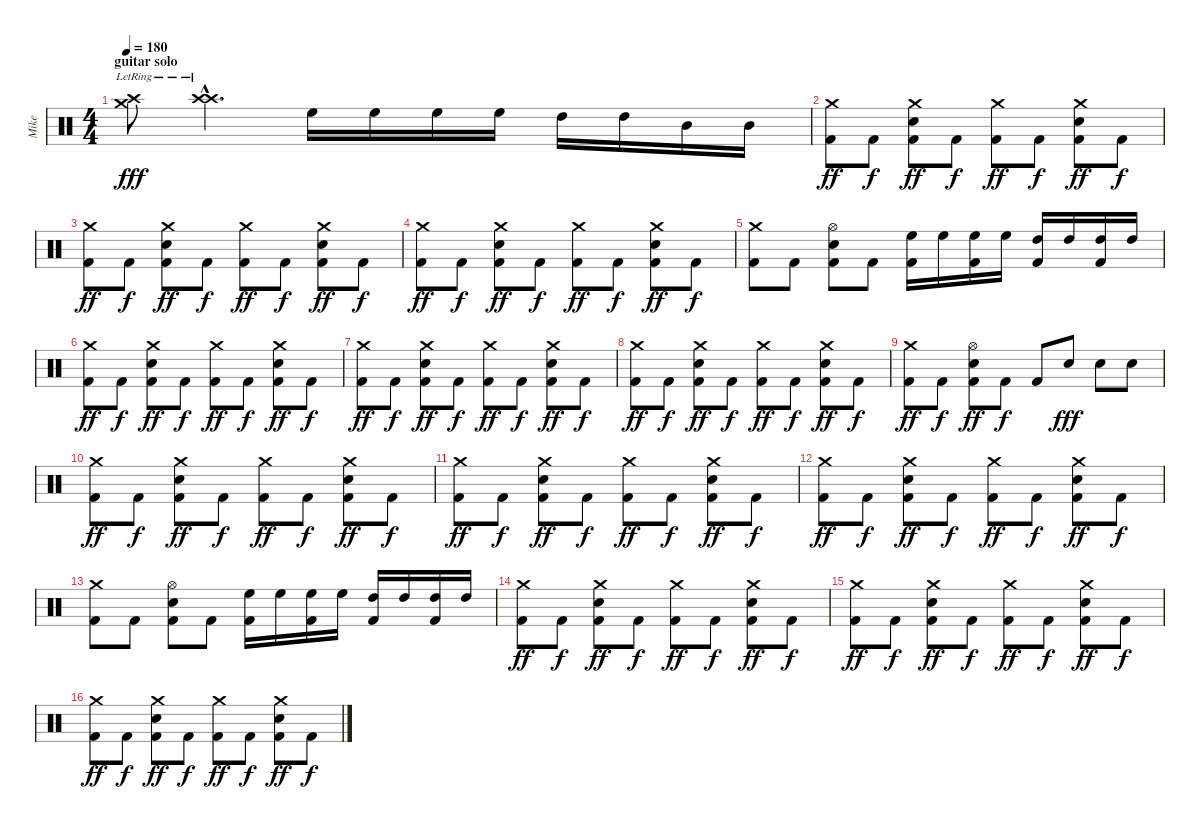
\track ("Mike" "Mike") {instrument percussion}
\staff {score}
\articulation defaults
\ts (4 4)
\section ("" "guitar solo")
\tempo 180
\clef neutral
\ks c
("Crash high (hit)"{lr} "Crash medium (hit)"{lr}).8{dy fff} ("Crash high (hit)"{hac lr} "Crash high (hit)"{hac lr}).4{d} "High Floor Tom (hit)".16 "High Floor Tom (hit)".16 "High Floor Tom (hit)".16 "High Floor Tom (hit)".16 "High Tom (hit)".16 "High Tom (hit)".16 "Mid Tom (hit)".16 "Mid Tom (hit)".16 |
("Crash medium (hit)" "Kick (hit) 2").8{dy ff} "Kick (hit) 2".8{dy f} ("Crash medium (hit)" "Snare (hit) 2" "Kick (hit) 2").8{dy ff} "Kick (hit) 2".8{dy f} ("Crash medium (hit)" "Kick (hit) 2").8{dy ff} "Kick (hit) 2".8{dy f} ("Crash medium (hit)" "Snare (hit) 2" "Kick (hit) 2").8{dy ff} "Kick (hit) 2".8{dy f} |
("Crash medium (hit)" "Kick (hit) 2").8{dy ff} "Kick (hit) 2".8{dy f} ("Crash medium (hit)" "Snare (hit) 2" "Kick (hit) 2").8{dy ff} "Kick (hit) 2".8{dy f} ("Crash medium (hit)" "Kick (hit) 2").8{dy ff} "Kick (hit) 2".8{dy f} ("Crash medium (hit)" "Snare (hit) 2" "Kick (hit) 2").8{dy ff} "Kick (hit) 2".8{dy f} |
("Crash medium (hit)" "Kick (hit) 2").8{dy ff} "Kick (hit) 2".8{dy f} ("Crash medium (hit)" "Snare (hit) 2" "Kick (hit) 2").8{dy ff} "Kick (hit) 2".8{dy f} ("Crash medium (hit)" "Kick (hit) 2").8{dy ff} "Kick (hit) 2".8{dy f} ("Crash medium (hit)" "Snare (hit) 2" "Kick (hit) 2").8{dy ff} "Kick (hit) 2".8{dy f} |
("Crash medium (hit)" "Kick (hit) 2").8 "Kick (hit) 2".8 ("Hi-Hat (open)" "Snare (hit) 2" "Kick (hit) 2").8 "Kick (hit) 2".8 ("High Floor Tom (hit)" "Kick (hit) 2").16 "High Floor Tom (hit)".16 ("High Floor Tom (hit)" "Kick (hit) 2").16 "High Floor Tom (hit)".16 ("High Tom (hit)" "Kick (hit) 2").16 "High Tom (hit)".16 ("High Tom (hit)" "Kick (hit) 2").16 "High Tom (hit)".16 |
("Crash medium (hit)" "Kick (hit) 2").8{dy ff} "Kick (hit) 2".8{dy f} ("Crash medium (hit)" "Snare (hit) 2" "Kick (hit) 2").8{dy ff} "Kick (hit) 2".8{dy f} ("Crash medium (hit)" "Kick (hit) 2").8{dy ff} "Kick (hit) 2".8{dy f} ("Crash medium (hit)" "Snare (hit) 2" "Kick (hit) 2").8{dy ff} "Kick (hit) 2".8{dy f} |
("Crash medium (hit)" "Kick (hit) 2").8{dy ff} "Kick (hit) 2".8{dy f} ("Crash medium (hit)" "Snare (hit) 2" "Kick (hit) 2").8{dy ff} "Kick (hit) 2".8{dy f} ("Crash medium (hit)" "Kick (hit) 2").8{dy ff} "Kick (hit) 2".8{dy f} ("Crash medium (hit)" "Snare (hit) 2" "Kick (hit) 2").8{dy ff} "Kick (hit) 2".8{dy f} |
("Crash medium (hit)" "Kick (hit) 2").8{dy ff} "Kick (hit) 2".8{dy f} ("Crash medium (hit)" "Snare (hit) 2" "Kick (hit) 2").8{dy ff} "Kick (hit) 2".8{dy f} ("Crash medium (hit)" "Kick (hit) 2").8{dy ff} "Kick (hit) 2".8{dy f} ("Crash medium (hit)" "Snare (hit) 2" "Kick (hit) 2").8{dy ff} "Kick (hit) 2".8{dy f} |
("Crash medium (hit)" "Kick (hit) 2").8{dy ff} "Kick (hit) 2".8{dy f} ("Hi-Hat (open)" "Snare (hit) 2" "Kick (hit) 2").8{dy ff} "Kick (hit) 2".8{dy f} "Kick (hit) 2".8 "Snare (hit) 2".8{dy fff} "Snare (hit) 2".8 "Snare (hit) 2".8 |
("Crash medium (hit)" "Kick (hit) 2").8{dy ff} "Kick (hit) 2".8{dy f} ("Crash medium (hit)" "Snare (hit) 2" "Kick (hit) 2").8{dy ff} "Kick (hit) 2".8{dy f} ("Crash medium (hit)" "Kick (hit) 2").8{dy ff} "Kick (hit) 2".8{dy f} ("Crash medium (hit)" "Snare (hit) 2" "Kick (hit) 2").8{dy ff} "Kick (hit) 2".8{dy f} |
("Crash medium (hit)" "Kick (hit) 2").8{dy ff} "Kick (hit) 2".8{dy f} ("Crash medium (hit)" "Snare (hit) 2" "Kick (hit) 2").8{dy ff} "Kick (hit) 2".8{dy f} ("Crash medium (hit)" "Kick (hit) 2").8{dy ff} "Kick (hit) 2".8{dy f} ("Crash medium (hit)" "Snare (hit) 2" "Kick (hit) 2").8{dy ff} "Kick (hit) 2".8{dy f} |
("Crash medium (hit)" "Kick (hit) 2").8{dy ff} "Kick (hit) 2".8{dy f} ("Crash medium (hit)" "Snare (hit) 2" "Kick (hit) 2").8{dy ff} "Kick (hit) 2".8{dy f} ("Crash medium (hit)" "Kick (hit) 2").8{dy ff} "Kick (hit) 2".8{dy f} ("Crash medium (hit)" "Snare (hit) 2" "Kick (hit) 2").8{dy ff} "Kick (hit) 2".8{dy f} |
("Crash medium (hit)" "Kick (hit) 2").8 "Kick (hit) 2".8 ("Hi-Hat (open)" "Snare (hit) 2" "Kick (hit) 2").8 "Kick (hit) 2".8 ("High Floor Tom (hit)" "Kick (hit) 2").16 "High Floor Tom (hit)".16 ("High Floor Tom (hit)" "Kick (hit) 2").16 "High Floor Tom (hit)".16 ("High Tom (hit)" "Kick (hit) 2").16 "High Tom (hit)".16 ("High Tom (hit)" "Kick (hit) 2").16 "High Tom (hit)".16 |
("Crash medium (hit)" "Kick (hit) 2").8{dy ff} "Kick (hit) 2".8{dy f} ("Crash medium (hit)" "Snare (hit) 2" "Kick (hit) 2").8{dy ff} "Kick (hit) 2".8{dy f} ("Crash medium (hit)" "Kick (hit) 2").8{dy ff} "Kick (hit) 2".8{dy f} ("Crash medium (hit)" "Snare (hit) 2" "Kick (hit) 2").8{dy ff} "Kick (hit) 2".8{dy f} |
("Crash medium (hit)" "Kick (hit) 2").8{dy ff} "Kick (hit) 2".8{dy f} ("Crash medium (hit)" "Snare (hit) 2" "Kick (hit) 2").8{dy ff} "Kick (hit) 2".8{dy f} ("Crash medium (hit)" "Kick (hit) 2").8{dy ff} "Kick (hit) 2".8{dy f} ("Crash medium (hit)" "Snare (hit) 2" "Kick (hit) 2").8{dy ff} "Kick (hit) 2".8{dy f} |
("Crash medium (hit)" "Kick (hit) 2").8{dy ff} "Kick (hit) 2".8{dy f} ("Crash medium (hit)" "Snare (hit) 2" "Kick (hit) 2").8{dy ff} "Kick (hit) 2".8{dy f} ("Crash medium (hit)" "Kick (hit) 2").8{dy ff} "Kick (hit) 2".8{dy f} ("Crash medium (hit)" "Snare (hit) 2" "Kick (hit) 2").8{dy ff} "Kick (hit) 2".8{dy f}
